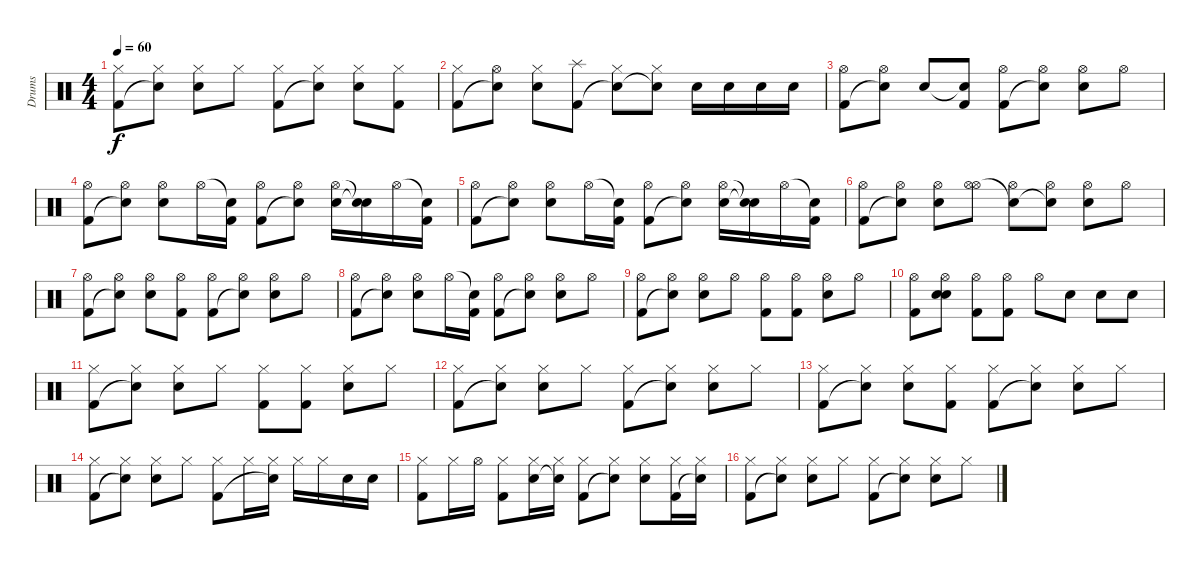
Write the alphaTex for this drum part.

\track ("Drums" "Drums") {instrument percussion}
\staff {score}
\articulation defaults
\ts (4 4)
\tempo 60
\clef neutral
\ks c
("Hi-Hat (closed)" "Kick (hit) 2").8{dy f} ("Hi-Hat (closed)" "Snare (hit)"{t}).8 ("Hi-Hat (closed)" "Snare (hit) 2").8 "Hi-Hat (closed)".8 ("Hi-Hat (closed)" "Kick (hit) 2").8 ("Hi-Hat (closed)" "Snare (hit)"{t}).8 ("Hi-Hat (closed)" "Snare (hit) 2").8 ("Hi-Hat (closed)" "Kick (hit) 2").8 |
("Hi-Hat (closed)" "Kick (hit) 2").8 ("Hi-Hat (open)" "Snare (hit)"{t}).8 ("Hi-Hat (closed)" "Snare (hit) 2").8 ("Splash (hit)" "Kick (hit) 2").8 ("Hi-Hat (closed)" "Snare (hit)"{t}).8 ("Hi-Hat (closed)" "Snare (hit)"{t}).8 "Snare (hit) 2".16 "Snare (hit) 2".16 "Snare (hit) 2".16 "Snare (hit) 2".16 |
("Hi-Hat (open)" "Kick (hit) 2").8 ("Hi-Hat (open)" "Snare (hit)"{t}).8 "Snare (hit) 2".8 ("Snare (hit)"{t} "Kick (hit) 2").8 ("Hi-Hat (open)" "Kick (hit) 2").8 ("Hi-Hat (open)" "Snare (hit)"{t}).8 ("Hi-Hat (open)" "Snare (hit) 2").8 "Hi-Hat (open)".8 |
("Hi-Hat (open)" "Kick (hit) 2").8 ("Hi-Hat (open)" "Snare (hit)"{t}).8 ("Hi-Hat (open)" "Snare (hit) 2").8 "Hi-Hat (open)".16 ("Snare (hit)"{t} "Kick (hit) 2").16 ("Hi-Hat (open)" "Kick (hit) 2").8 ("Hi-Hat (open)" "Snare (hit)"{t}).8 ("Hi-Hat (open)" "Snare (hit) 2").16 ("Snare (hit)"{t} "Snare (hit)"{t}).16 "Hi-Hat (open)".16 ("Snare (hit)"{t} "Kick (hit) 2").16 |
("Hi-Hat (open)" "Kick (hit) 2").8 ("Hi-Hat (open)" "Snare (hit)"{t}).8 ("Hi-Hat (open)" "Snare (hit) 2").8 "Hi-Hat (open)".16 ("Snare (hit)"{t} "Kick (hit) 2").16 ("Hi-Hat (open)" "Kick (hit) 2").8 ("Hi-Hat (open)" "Snare (hit)"{t}).8 ("Hi-Hat (open)" "Snare (hit) 2").16 ("Snare (hit)"{t} "Snare (hit)"{t}).16 "Hi-Hat (open)".16 ("Snare (hit)"{t} "Kick (hit) 2").16 |
("Hi-Hat (open)" "Kick (hit) 2").8 ("Hi-Hat (open)" "Snare (hit)"{t}).8 ("Hi-Hat (open)" "Snare (hit) 2").8 ("Hi-Hat (open)" "Hi-Hat (open)").8 ("Hi-Hat (open)" "Snare (hit)"{t}).8 ("Hi-Hat (open)" "Snare (hit)"{t}).8 ("Hi-Hat (open)" "Snare (hit) 2").8 "Hi-Hat (open)".8 |
("Hi-Hat (open)" "Kick (hit) 2").8 ("Hi-Hat (open)" "Snare (hit)"{t}).8 ("Hi-Hat (open)" "Snare (hit) 2").8 ("Hi-Hat (open)" "Kick (hit) 2").8 ("Hi-Hat (open)" "Kick (hit) 2").8 ("Hi-Hat (open)" "Snare (hit)"{t}).8 ("Hi-Hat (open)" "Snare (hit) 2").8 "Hi-Hat (open)".8 |
("Hi-Hat (open)" "Kick (hit) 2").8 ("Hi-Hat (open)" "Snare (hit)"{t}).8 ("Hi-Hat (open)" "Snare (hit) 2").8 "Hi-Hat (open)".16 ("Snare (hit)"{t} "Kick (hit) 2").16 ("Hi-Hat (open)" "Kick (hit) 2").8 ("Hi-Hat (open)" "Snare (hit)"{t}).8 ("Hi-Hat (open)" "Snare (hit) 2").8 "Hi-Hat (open)".8 |
("Hi-Hat (open)" "Kick (hit) 2").8 ("Hi-Hat (open)" "Snare (hit)"{t}).8 ("Hi-Hat (open)" "Snare (hit) 2").8 "Hi-Hat (open)".8 ("Hi-Hat (open)" "Kick (hit) 2").8 ("Hi-Hat (open)" "Kick (hit) 2").8 ("Hi-Hat (open)" "Snare (hit) 2").8 "Hi-Hat (open)".8 |
("Hi-Hat (open)" "Kick (hit) 2").8 ("Hi-Hat (open)" "Snare (hit) 2" "Snare (hit)").8 ("Hi-Hat (open)" "Kick (hit) 2").8 ("Hi-Hat (open)" "Kick (hit) 2").8 "Hi-Hat (open)".8 "Snare (hit) 2".8 "Snare (hit) 2".8 "Snare (hit) 2".8 |
("Hi-Hat (closed)" "Kick (hit) 2").8 ("Hi-Hat (closed)" "Snare (hit)"{t}).8 ("Hi-Hat (closed)" "Snare (hit) 2").8 "Hi-Hat (closed)".8 ("Hi-Hat (closed)" "Kick (hit) 2").8 ("Hi-Hat (closed)" "Kick (hit) 2").8 ("Hi-Hat (closed)" "Snare (hit) 2").8 "Hi-Hat (closed)".8 |
("Hi-Hat (closed)" "Kick (hit) 2").8 ("Hi-Hat (closed)" "Snare (hit)"{t}).8 ("Hi-Hat (closed)" "Snare (hit) 2").8 "Hi-Hat (closed)".8 ("Hi-Hat (closed)" "Kick (hit) 2").8 ("Hi-Hat (closed)" "Snare (hit)"{t}).8 ("Hi-Hat (closed)" "Snare (hit) 2").8 "Hi-Hat (closed)".8 |
("Hi-Hat (closed)" "Kick (hit) 2").8 ("Hi-Hat (closed)" "Snare (hit)"{t}).8 ("Hi-Hat (closed)" "Snare (hit) 2").8 ("Hi-Hat (closed)" "Kick (hit) 2").8 ("Hi-Hat (closed)" "Kick (hit) 2").8 ("Hi-Hat (closed)" "Snare (hit)"{t}).8 ("Hi-Hat (closed)" "Snare (hit) 2").8 "Hi-Hat (closed)".8 |
("Hi-Hat (closed)" "Kick (hit) 2").8 ("Hi-Hat (closed)" "Snare (hit)"{t}).8 ("Hi-Hat (closed)" "Snare (hit) 2").8 "Hi-Hat (closed)".8 ("Hi-Hat (closed)" "Kick (hit) 2").8 "Hi-Hat (closed)".16 ("Hi-Hat (closed)" "Snare (hit)"{t}).16 "Hi-Hat (closed)".16 "Hi-Hat (closed)".16 "Snare (hit) 2".16 "Snare (hit) 2".16 |
("Hi-Hat (closed)" "Kick (hit) 2").8 "Hi-Hat (closed)".16 "Hi-Hat (open)".16 ("Hi-Hat (closed)" "Kick (hit) 2").8 ("Hi-Hat (closed)" "Snare (hit) 2").16 ("Hi-Hat (closed)" "Snare (hit)"{t}).16 ("Hi-Hat (closed)" "Kick (hit) 2").8 ("Hi-Hat (closed)" "Snare (hit)"{t}).8 ("Hi-Hat (closed)" "Snare (hit) 2").8 ("Hi-Hat (closed)" "Kick (hit) 2").16 ("Hi-Hat (closed)" "Snare (hit)"{t}).16 |
("Hi-Hat (closed)" "Kick (hit) 2").8 ("Hi-Hat (closed)" "Snare (hit)"{t}).8 ("Hi-Hat (closed)" "Snare (hit) 2").8 "Hi-Hat (closed)".8 ("Hi-Hat (closed)" "Kick (hit) 2").8 ("Hi-Hat (closed)" "Snare (hit)"{t}).8 ("Hi-Hat (closed)" "Snare (hit) 2").8 "Hi-Hat (closed)".8
